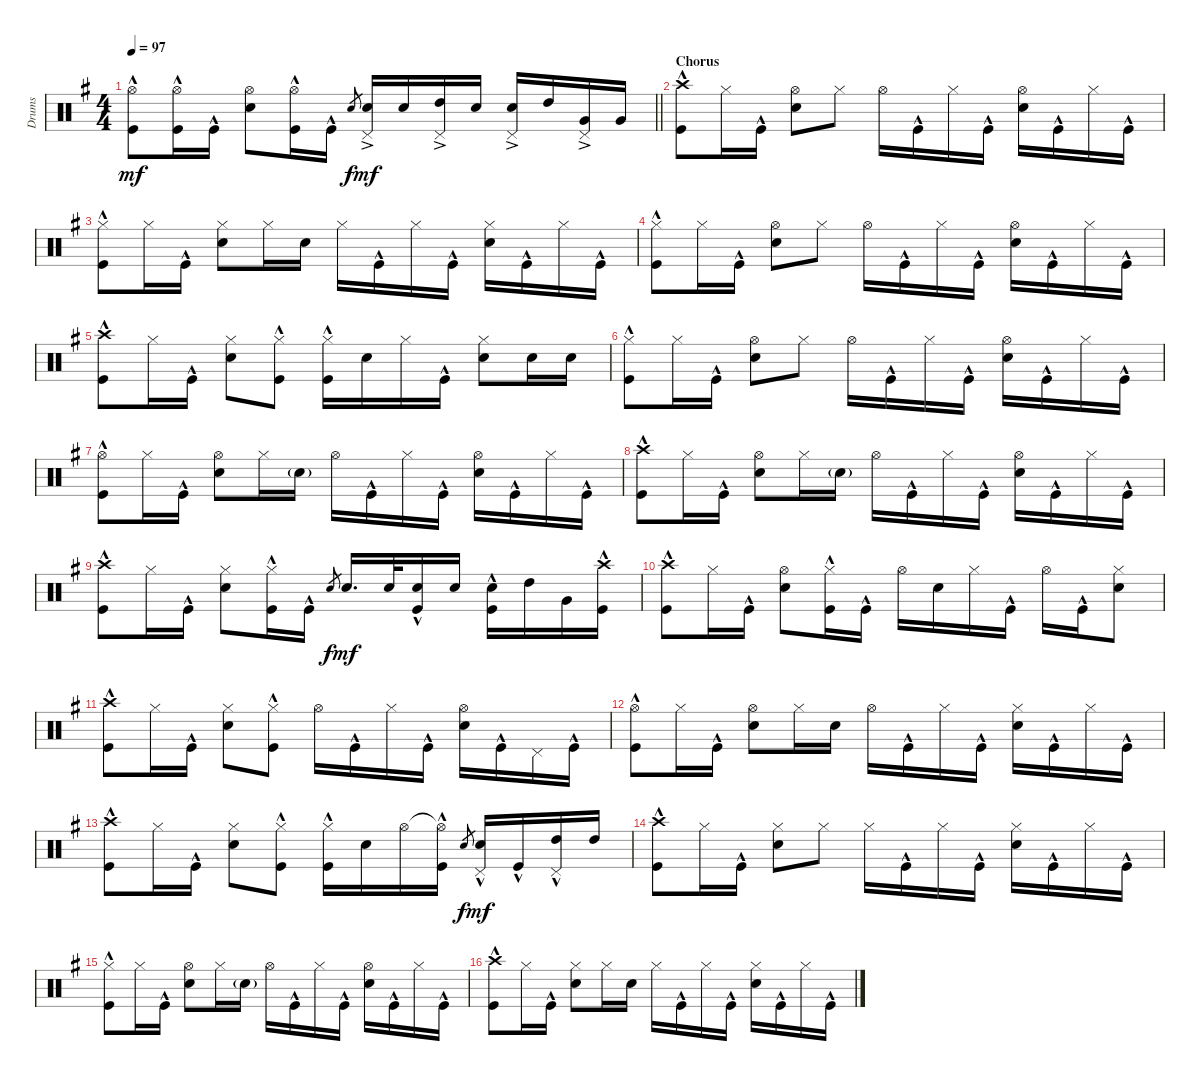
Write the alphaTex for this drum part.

\track ("Drums" "Drums") {instrument percussion}
\staff {score}
\articulation defaults
\ts (4 4)
\tempo 97
\clef neutral
\barLineRight lightlight
\ks eminor
("Hi-Hat (open)" "Kick (hit)"{hac}).8{dy mf} ("Hi-Hat (open)" "Kick (hit)"{hac}).16 "Kick (hit)"{hac}.16 ("Hi-Hat (open)" "Snare (hit) 2").8 ("Hi-Hat (open)" "Kick (hit)"{hac}).16 "Kick (hit)"{hac}.16 "Snare (hit) 2".8{gr dy f} ("Snare (hit) 2" "Pedal Hi-Hat (hit)"{ac}).16{dy mf} "Snare (hit) 2".16 ("High Tom (hit)" "Pedal Hi-Hat (hit)"{ac}).16 "Snare (hit) 2".16 ("Snare (hit) 2" "Pedal Hi-Hat (hit)"{ac}).16 "High Tom (hit)".16 ("Very Low Tom (hit)" "Pedal Hi-Hat (hit)"{ac}).16 "Very Low Tom (hit)".16 |
\section ("" "Chorus")
("Crash high (hit)" "Kick (hit)"{hac}).8 "Hi-Hat (closed)".16 "Kick (hit)"{hac}.16 ("Hi-Hat (open)" "Snare (hit) 2").8 "Hi-Hat (closed)".8 "Hi-Hat (open)".16 "Kick (hit)"{hac}.16 "Hi-Hat (closed)".16 "Kick (hit)"{hac}.16 ("Hi-Hat (open)" "Snare (hit) 2").16 "Kick (hit)"{hac}.16 "Hi-Hat (closed)".16 "Kick (hit)"{hac}.16 |
("Hi-Hat (closed)" "Kick (hit)"{hac}).8 "Hi-Hat (closed)".16 "Kick (hit)"{hac}.16 ("Hi-Hat (closed)" "Snare (hit) 2").8 "Hi-Hat (closed)".16 "Snare (hit) 2".16 "Hi-Hat (closed)".16 "Kick (hit)"{hac}.16 "Hi-Hat (closed)".16 "Kick (hit)"{hac}.16 ("Hi-Hat (closed)" "Snare (hit) 2").16 "Kick (hit)"{hac}.16 "Hi-Hat (closed)".16 "Kick (hit)"{hac}.16 |
("Hi-Hat (closed)" "Kick (hit)"{hac}).8 "Hi-Hat (closed)".16 "Kick (hit)"{hac}.16 ("Hi-Hat (open)" "Snare (hit) 2").8 "Hi-Hat (closed)".8 "Hi-Hat (open)".16 "Kick (hit)"{hac}.16 "Hi-Hat (closed)".16 "Kick (hit)"{hac}.16 ("Hi-Hat (open)" "Snare (hit) 2").16 "Kick (hit)"{hac}.16 "Hi-Hat (closed)".16 "Kick (hit)"{hac}.16 |
("Crash high (hit)" "Kick (hit)"{hac}).8 "Hi-Hat (closed)".16 "Kick (hit)"{hac}.16 ("Hi-Hat (closed)" "Snare (hit) 2").8 ("Hi-Hat (closed)" "Kick (hit)"{hac}).8 ("Hi-Hat (closed)" "Kick (hit)"{hac}).16 "Snare (hit) 2".16 "Hi-Hat (closed)".16 "Kick (hit)"{hac}.16 ("Hi-Hat (closed)" "Snare (hit) 2").8 "Snare (hit) 2".16 "Snare (hit) 2".16 |
("Hi-Hat (closed)" "Kick (hit)"{hac}).8 "Hi-Hat (closed)".16 "Kick (hit)"{hac}.16 ("Hi-Hat (open)" "Snare (hit) 2").8 "Hi-Hat (closed)".8 "Hi-Hat (open)".16 "Kick (hit)"{hac}.16 "Hi-Hat (closed)".16 "Kick (hit)"{hac}.16 ("Hi-Hat (open)" "Snare (hit) 2").16 "Kick (hit)"{hac}.16 "Hi-Hat (closed)".16 "Kick (hit)"{hac}.16 |
("Hi-Hat (open)" "Kick (hit)"{hac}).8 "Hi-Hat (closed)".16 "Kick (hit)"{hac}.16 ("Hi-Hat (open)" "Snare (hit) 2").8 "Hi-Hat (closed)".16 "Snare (hit) 2"{g}.16 "Hi-Hat (open)".16 "Kick (hit)"{hac}.16 "Hi-Hat (closed)".16 "Kick (hit)"{hac}.16 ("Hi-Hat (open)" "Snare (hit) 2").16 "Kick (hit)"{hac}.16 "Hi-Hat (closed)".16 "Kick (hit)"{hac}.16 |
("Crash high (hit)" "Kick (hit)"{hac}).8 "Hi-Hat (closed)".16 "Kick (hit)"{hac}.16 ("Hi-Hat (open)" "Snare (hit) 2").8 "Hi-Hat (closed)".16 "Snare (hit) 2"{g}.16 "Hi-Hat (open)".16 "Kick (hit)"{hac}.16 "Hi-Hat (closed)".16 "Kick (hit)"{hac}.16 ("Hi-Hat (open)" "Snare (hit) 2").16 "Kick (hit)"{hac}.16 "Hi-Hat (closed)".16 "Kick (hit)"{hac}.16 |
("Crash high (hit)" "Kick (hit)"{hac}).8 "Hi-Hat (closed)".16 "Kick (hit)"{hac}.16 ("Hi-Hat (closed)" "Snare (hit) 2").8 ("Hi-Hat (closed)" "Kick (hit)"{hac}).16 "Kick (hit)"{hac}.16 "Snare (hit) 2".8{gr dy f} "Snare (hit) 2".16{d dy mf} "Snare (hit) 2".32 ("Snare (hit) 2" "Kick (hit)"{hac}).16 "Snare (hit) 2".16 ("Snare (hit) 2" "Kick (hit)"{hac}).16 "High Tom (hit)".16 "Very Low Tom (hit)".16 ("Crash high (hit)" "Kick (hit)"{hac}).16 |
("Crash high (hit)" "Kick (hit)"{hac}).8 "Hi-Hat (closed)".16 "Kick (hit)"{hac}.16 ("Hi-Hat (open)" "Snare (hit) 2").8 ("Hi-Hat (closed)" "Kick (hit)"{hac}).16 "Kick (hit)"{hac}.16 "Hi-Hat (open)".16 "Snare (hit) 2".16 "Hi-Hat (closed)".16 "Kick (hit)"{hac}.16 "Hi-Hat (open)".16 "Kick (hit)"{hac}.16 ("Hi-Hat (closed)" "Snare (hit) 2").8 |
("Crash high (hit)" "Kick (hit)"{hac}).8 "Hi-Hat (closed)".16 "Kick (hit)"{hac}.16 ("Hi-Hat (closed)" "Snare (hit) 2").8 ("Hi-Hat (closed)" "Kick (hit)"{hac}).8 "Hi-Hat (open)".16 "Kick (hit)"{hac}.16 "Hi-Hat (closed)".16 "Kick (hit)"{hac}.16 ("Hi-Hat (open)" "Snare (hit) 2").16 "Kick (hit)"{hac}.16 "Pedal Hi-Hat (hit)".16 "Kick (hit)"{hac}.16 |
("Hi-Hat (open)" "Kick (hit)"{hac}).8 "Hi-Hat (closed)".16 "Kick (hit)"{hac}.16 ("Hi-Hat (open)" "Snare (hit) 2").8 "Hi-Hat (closed)".16 "Snare (hit) 2".16 "Hi-Hat (open)".16 "Kick (hit)"{hac}.16 "Hi-Hat (closed)".16 "Kick (hit)"{hac}.16 ("Hi-Hat (closed)" "Snare (hit) 2").16 "Kick (hit)"{hac}.16 "Hi-Hat (closed)".16 "Kick (hit)"{hac}.16 |
("Crash high (hit)" "Kick (hit)"{hac}).8 "Hi-Hat (closed)".16 "Kick (hit)"{hac}.16 ("Hi-Hat (closed)" "Snare (hit) 2").8 ("Hi-Hat (closed)" "Kick (hit)"{hac}).8 ("Hi-Hat (closed)" "Kick (hit)"{hac}).16 "Snare (hit) 2".16 "Hi-Hat (open)".16 ("Hi-Hat (open)"{t} "Kick (hit)"{hac}).16 "Snare (hit) 2".8{gr dy f} ("Snare (hit) 2" "Pedal Hi-Hat (hit)"{hac}).16{dy mf} "Kick (hit)"{hac}.16 ("High Tom (hit)" "Pedal Hi-Hat (hit)"{hac}).16 "High Tom (hit)".16 |
("Crash high (hit)" "Kick (hit)"{hac}).8 "Hi-Hat (closed)".16 "Kick (hit)"{hac}.16 ("Hi-Hat (closed)" "Snare (hit) 2").8 "Hi-Hat (closed)".8 "Hi-Hat (closed)".16 "Kick (hit)"{hac}.16 "Hi-Hat (closed)".16 "Kick (hit)"{hac}.16 ("Hi-Hat (closed)" "Snare (hit) 2").16 "Kick (hit)"{hac}.16 "Hi-Hat (closed)".16 "Kick (hit)"{hac}.16 |
("Hi-Hat (closed)" "Kick (hit)"{hac}).8 "Hi-Hat (closed)".16 "Kick (hit)"{hac}.16 ("Hi-Hat (open)" "Snare (hit) 2").8 "Hi-Hat (closed)".16 "Snare (hit) 2"{g}.16 "Hi-Hat (open)".16 "Kick (hit)"{hac}.16 "Hi-Hat (closed)".16 "Kick (hit)"{hac}.16 ("Hi-Hat (open)" "Snare (hit) 2").16 "Kick (hit)"{hac}.16 "Hi-Hat (closed)".16 "Kick (hit)"{hac}.16 |
("Crash high (hit)" "Kick (hit)"{hac}).8 "Hi-Hat (closed)".16 "Kick (hit)"{hac}.16 ("Hi-Hat (closed)" "Snare (hit) 2").8 "Hi-Hat (closed)".16 "Snare (hit) 2".16 "Hi-Hat (closed)".16 "Kick (hit)"{hac}.16 "Hi-Hat (closed)".16 "Kick (hit)"{hac}.16 ("Hi-Hat (closed)" "Snare (hit) 2").16 "Kick (hit)"{hac}.16 "Hi-Hat (closed)".16 "Kick (hit)"{hac}.16
